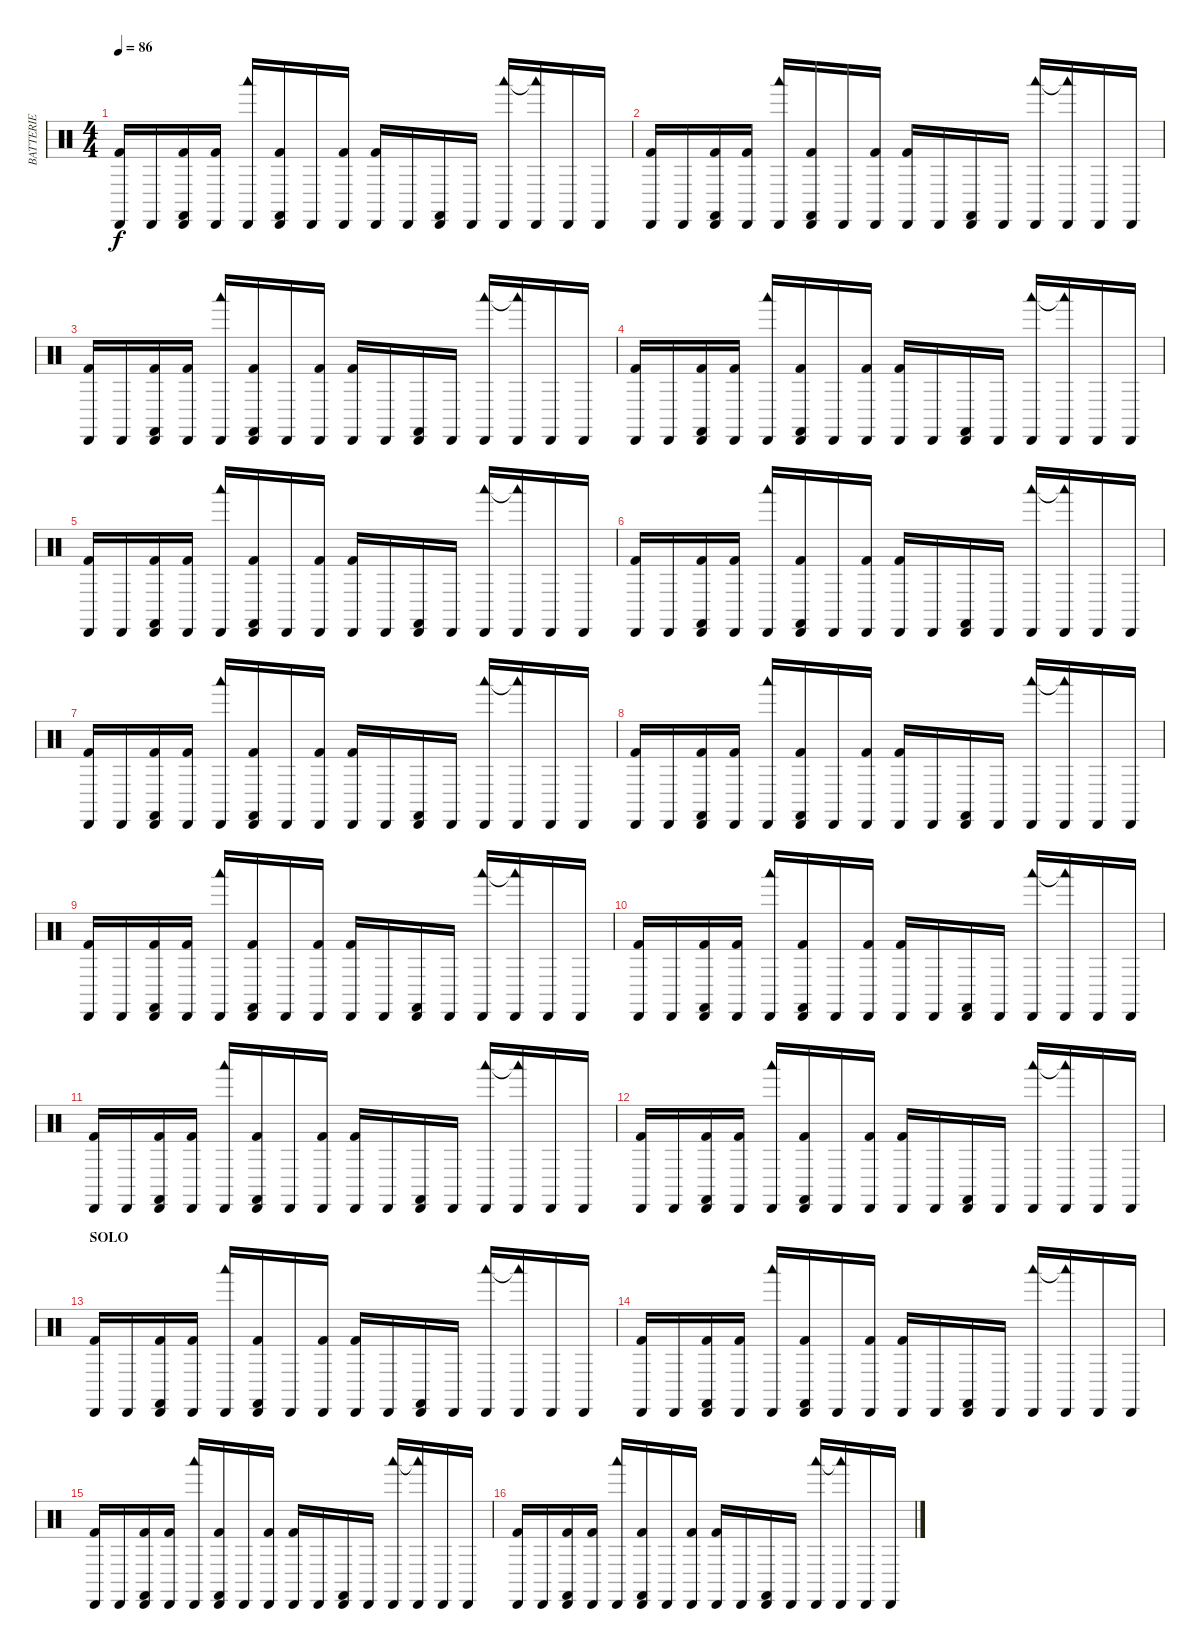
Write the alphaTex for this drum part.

\track ("BATTERIE" "BATTERIE") {instrument percussion}
\staff {score}
\articulation defaults
\ts (4 4)
\tempo 86
\clef neutral
\ks c
("Cabasa (hit)" "Kick (hit) 2").16{dy f} "Cabasa (hit)".16 ("Cabasa (hit)" "Castanets (hit)" "Kick (hit) 2").16 ("Cabasa (hit)" "Kick (hit) 2").16 ("Cabasa (hit)" "Woodblock low (hit)").16 ("Cabasa (hit)" "Castanets (hit)" "Kick (hit) 2").16 "Cabasa (hit)".16 ("Cabasa (hit)" "Kick (hit) 2").16 ("Cabasa (hit)" "Kick (hit) 2").16 "Cabasa (hit)".16 ("Cabasa (hit)" "Castanets (hit)").16 "Cabasa (hit)".16 ("Cabasa (hit)" "Woodblock low (hit)").16 ("Cabasa (hit)" "Woodblock low (hit)"{t}).16 "Cabasa (hit)".16 "Cabasa (hit)".16 |
("Cabasa (hit)" "Kick (hit) 2").16 "Cabasa (hit)".16 ("Cabasa (hit)" "Castanets (hit)" "Kick (hit) 2").16 ("Cabasa (hit)" "Kick (hit) 2").16 ("Cabasa (hit)" "Woodblock low (hit)").16 ("Cabasa (hit)" "Castanets (hit)" "Kick (hit) 2").16 "Cabasa (hit)".16 ("Cabasa (hit)" "Kick (hit) 2").16 ("Cabasa (hit)" "Kick (hit) 2").16 "Cabasa (hit)".16 ("Cabasa (hit)" "Castanets (hit)").16 "Cabasa (hit)".16 ("Cabasa (hit)" "Woodblock low (hit)").16 ("Cabasa (hit)" "Woodblock low (hit)"{t}).16 "Cabasa (hit)".16 "Cabasa (hit)".16 |
("Cabasa (hit)" "Kick (hit) 2").16 "Cabasa (hit)".16 ("Cabasa (hit)" "Castanets (hit)" "Kick (hit) 2").16 ("Cabasa (hit)" "Kick (hit) 2").16 ("Cabasa (hit)" "Woodblock low (hit)").16 ("Cabasa (hit)" "Castanets (hit)" "Kick (hit) 2").16 "Cabasa (hit)".16 ("Cabasa (hit)" "Kick (hit) 2").16 ("Cabasa (hit)" "Kick (hit) 2").16 "Cabasa (hit)".16 ("Cabasa (hit)" "Castanets (hit)").16 "Cabasa (hit)".16 ("Cabasa (hit)" "Woodblock low (hit)").16 ("Cabasa (hit)" "Woodblock low (hit)"{t}).16 "Cabasa (hit)".16 "Cabasa (hit)".16 |
("Cabasa (hit)" "Kick (hit) 2").16 "Cabasa (hit)".16 ("Cabasa (hit)" "Castanets (hit)" "Kick (hit) 2").16 ("Cabasa (hit)" "Kick (hit) 2").16 ("Cabasa (hit)" "Woodblock low (hit)").16 ("Cabasa (hit)" "Castanets (hit)" "Kick (hit) 2").16 "Cabasa (hit)".16 ("Cabasa (hit)" "Kick (hit) 2").16 ("Cabasa (hit)" "Kick (hit) 2").16 "Cabasa (hit)".16 ("Cabasa (hit)" "Castanets (hit)").16 "Cabasa (hit)".16 ("Cabasa (hit)" "Woodblock low (hit)").16 ("Cabasa (hit)" "Woodblock low (hit)"{t}).16 "Cabasa (hit)".16 "Cabasa (hit)".16 |
("Cabasa (hit)" "Kick (hit) 2").16 "Cabasa (hit)".16 ("Cabasa (hit)" "Castanets (hit)" "Kick (hit) 2").16 ("Cabasa (hit)" "Kick (hit) 2").16 ("Cabasa (hit)" "Woodblock low (hit)").16 ("Cabasa (hit)" "Castanets (hit)" "Kick (hit) 2").16 "Cabasa (hit)".16 ("Cabasa (hit)" "Kick (hit) 2").16 ("Cabasa (hit)" "Kick (hit) 2").16 "Cabasa (hit)".16 ("Cabasa (hit)" "Castanets (hit)").16 "Cabasa (hit)".16 ("Cabasa (hit)" "Woodblock low (hit)").16 ("Cabasa (hit)" "Woodblock low (hit)"{t}).16 "Cabasa (hit)".16 "Cabasa (hit)".16 |
("Cabasa (hit)" "Kick (hit) 2").16 "Cabasa (hit)".16 ("Cabasa (hit)" "Castanets (hit)" "Kick (hit) 2").16 ("Cabasa (hit)" "Kick (hit) 2").16 ("Cabasa (hit)" "Woodblock low (hit)").16 ("Cabasa (hit)" "Castanets (hit)" "Kick (hit) 2").16 "Cabasa (hit)".16 ("Cabasa (hit)" "Kick (hit) 2").16 ("Cabasa (hit)" "Kick (hit) 2").16 "Cabasa (hit)".16 ("Cabasa (hit)" "Castanets (hit)").16 "Cabasa (hit)".16 ("Cabasa (hit)" "Woodblock low (hit)").16 ("Cabasa (hit)" "Woodblock low (hit)"{t}).16 "Cabasa (hit)".16 "Cabasa (hit)".16 |
("Cabasa (hit)" "Kick (hit) 2").16 "Cabasa (hit)".16 ("Cabasa (hit)" "Castanets (hit)" "Kick (hit) 2").16 ("Cabasa (hit)" "Kick (hit) 2").16 ("Cabasa (hit)" "Woodblock low (hit)").16 ("Cabasa (hit)" "Castanets (hit)" "Kick (hit) 2").16 "Cabasa (hit)".16 ("Cabasa (hit)" "Kick (hit) 2").16 ("Cabasa (hit)" "Kick (hit) 2").16 "Cabasa (hit)".16 ("Cabasa (hit)" "Castanets (hit)").16 "Cabasa (hit)".16 ("Cabasa (hit)" "Woodblock low (hit)").16 ("Cabasa (hit)" "Woodblock low (hit)"{t}).16 "Cabasa (hit)".16 "Cabasa (hit)".16 |
("Cabasa (hit)" "Kick (hit) 2").16 "Cabasa (hit)".16 ("Cabasa (hit)" "Castanets (hit)" "Kick (hit) 2").16 ("Cabasa (hit)" "Kick (hit) 2").16 ("Cabasa (hit)" "Woodblock low (hit)").16 ("Cabasa (hit)" "Castanets (hit)" "Kick (hit) 2").16 "Cabasa (hit)".16 ("Cabasa (hit)" "Kick (hit) 2").16 ("Cabasa (hit)" "Kick (hit) 2").16 "Cabasa (hit)".16 ("Cabasa (hit)" "Castanets (hit)").16 "Cabasa (hit)".16 ("Cabasa (hit)" "Woodblock low (hit)").16 ("Cabasa (hit)" "Woodblock low (hit)"{t}).16 "Cabasa (hit)".16 "Cabasa (hit)".16 |
("Cabasa (hit)" "Kick (hit) 2").16 "Cabasa (hit)".16 ("Cabasa (hit)" "Castanets (hit)" "Kick (hit) 2").16 ("Cabasa (hit)" "Kick (hit) 2").16 ("Cabasa (hit)" "Woodblock low (hit)").16 ("Cabasa (hit)" "Castanets (hit)" "Kick (hit) 2").16 "Cabasa (hit)".16 ("Cabasa (hit)" "Kick (hit) 2").16 ("Cabasa (hit)" "Kick (hit) 2").16 "Cabasa (hit)".16 ("Cabasa (hit)" "Castanets (hit)").16 "Cabasa (hit)".16 ("Cabasa (hit)" "Woodblock low (hit)").16 ("Cabasa (hit)" "Woodblock low (hit)"{t}).16 "Cabasa (hit)".16 "Cabasa (hit)".16 |
("Cabasa (hit)" "Kick (hit) 2").16 "Cabasa (hit)".16 ("Cabasa (hit)" "Castanets (hit)" "Kick (hit) 2").16 ("Cabasa (hit)" "Kick (hit) 2").16 ("Cabasa (hit)" "Woodblock low (hit)").16 ("Cabasa (hit)" "Castanets (hit)" "Kick (hit) 2").16 "Cabasa (hit)".16 ("Cabasa (hit)" "Kick (hit) 2").16 ("Cabasa (hit)" "Kick (hit) 2").16 "Cabasa (hit)".16 ("Cabasa (hit)" "Castanets (hit)").16 "Cabasa (hit)".16 ("Cabasa (hit)" "Woodblock low (hit)").16 ("Cabasa (hit)" "Woodblock low (hit)"{t}).16 "Cabasa (hit)".16 "Cabasa (hit)".16 |
("Cabasa (hit)" "Kick (hit) 2").16 "Cabasa (hit)".16 ("Cabasa (hit)" "Castanets (hit)" "Kick (hit) 2").16 ("Cabasa (hit)" "Kick (hit) 2").16 ("Cabasa (hit)" "Woodblock low (hit)").16 ("Cabasa (hit)" "Castanets (hit)" "Kick (hit) 2").16 "Cabasa (hit)".16 ("Cabasa (hit)" "Kick (hit) 2").16 ("Cabasa (hit)" "Kick (hit) 2").16 "Cabasa (hit)".16 ("Cabasa (hit)" "Castanets (hit)").16 "Cabasa (hit)".16 ("Cabasa (hit)" "Woodblock low (hit)").16 ("Cabasa (hit)" "Woodblock low (hit)"{t}).16 "Cabasa (hit)".16 "Cabasa (hit)".16 |
("Cabasa (hit)" "Kick (hit) 2").16 "Cabasa (hit)".16 ("Cabasa (hit)" "Castanets (hit)" "Kick (hit) 2").16 ("Cabasa (hit)" "Kick (hit) 2").16 ("Cabasa (hit)" "Woodblock low (hit)").16 ("Cabasa (hit)" "Castanets (hit)" "Kick (hit) 2").16 "Cabasa (hit)".16 ("Cabasa (hit)" "Kick (hit) 2").16 ("Cabasa (hit)" "Kick (hit) 2").16 "Cabasa (hit)".16 ("Cabasa (hit)" "Castanets (hit)").16 "Cabasa (hit)".16 ("Cabasa (hit)" "Woodblock low (hit)").16 ("Cabasa (hit)" "Woodblock low (hit)"{t}).16 "Cabasa (hit)".16 "Cabasa (hit)".16 |
\section ("" "SOLO")
("Cabasa (hit)" "Kick (hit) 2").16 "Cabasa (hit)".16 ("Cabasa (hit)" "Castanets (hit)" "Kick (hit) 2").16 ("Cabasa (hit)" "Kick (hit) 2").16 ("Cabasa (hit)" "Woodblock low (hit)").16 ("Cabasa (hit)" "Castanets (hit)" "Kick (hit) 2").16 "Cabasa (hit)".16 ("Cabasa (hit)" "Kick (hit) 2").16 ("Cabasa (hit)" "Kick (hit) 2").16 "Cabasa (hit)".16 ("Cabasa (hit)" "Castanets (hit)").16 "Cabasa (hit)".16 ("Cabasa (hit)" "Woodblock low (hit)").16 ("Cabasa (hit)" "Woodblock low (hit)"{t}).16 "Cabasa (hit)".16 "Cabasa (hit)".16 |
("Cabasa (hit)" "Kick (hit) 2").16 "Cabasa (hit)".16 ("Cabasa (hit)" "Castanets (hit)" "Kick (hit) 2").16 ("Cabasa (hit)" "Kick (hit) 2").16 ("Cabasa (hit)" "Woodblock low (hit)").16 ("Cabasa (hit)" "Castanets (hit)" "Kick (hit) 2").16 "Cabasa (hit)".16 ("Cabasa (hit)" "Kick (hit) 2").16 ("Cabasa (hit)" "Kick (hit) 2").16 "Cabasa (hit)".16 ("Cabasa (hit)" "Castanets (hit)").16 "Cabasa (hit)".16 ("Cabasa (hit)" "Woodblock low (hit)").16 ("Cabasa (hit)" "Woodblock low (hit)"{t}).16 "Cabasa (hit)".16 "Cabasa (hit)".16 |
("Cabasa (hit)" "Kick (hit) 2").16 "Cabasa (hit)".16 ("Cabasa (hit)" "Castanets (hit)" "Kick (hit) 2").16 ("Cabasa (hit)" "Kick (hit) 2").16 ("Cabasa (hit)" "Woodblock low (hit)").16 ("Cabasa (hit)" "Castanets (hit)" "Kick (hit) 2").16 "Cabasa (hit)".16 ("Cabasa (hit)" "Kick (hit) 2").16 ("Cabasa (hit)" "Kick (hit) 2").16 "Cabasa (hit)".16 ("Cabasa (hit)" "Castanets (hit)").16 "Cabasa (hit)".16 ("Cabasa (hit)" "Woodblock low (hit)").16 ("Cabasa (hit)" "Woodblock low (hit)"{t}).16 "Cabasa (hit)".16 "Cabasa (hit)".16 |
("Cabasa (hit)" "Kick (hit) 2").16 "Cabasa (hit)".16 ("Cabasa (hit)" "Castanets (hit)" "Kick (hit) 2").16 ("Cabasa (hit)" "Kick (hit) 2").16 ("Cabasa (hit)" "Woodblock low (hit)").16 ("Cabasa (hit)" "Castanets (hit)" "Kick (hit) 2").16 "Cabasa (hit)".16 ("Cabasa (hit)" "Kick (hit) 2").16 ("Cabasa (hit)" "Kick (hit) 2").16 "Cabasa (hit)".16 ("Cabasa (hit)" "Castanets (hit)").16 "Cabasa (hit)".16 ("Cabasa (hit)" "Woodblock low (hit)").16 ("Cabasa (hit)" "Woodblock low (hit)"{t}).16 "Cabasa (hit)".16 "Cabasa (hit)".16
